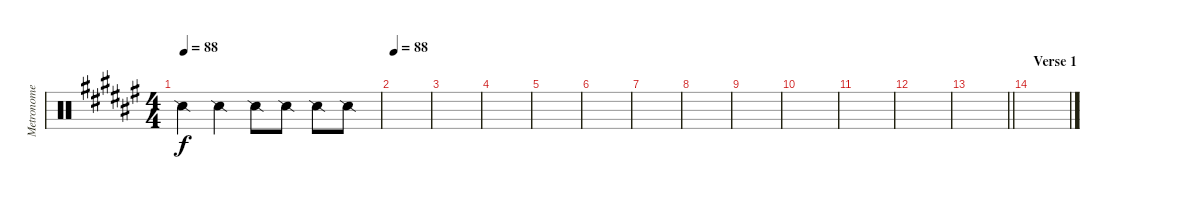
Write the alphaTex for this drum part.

\track ("Metronome" "Metronome") {instrument percussion}
\staff {score}
\articulation defaults
\ts (4 4)
\tempo 88
\clef neutral
\ks f# "Snare (side stick) 2".4{dy f} "Snare (side stick) 2".4 "Snare (side stick) 2".8 "Snare (side stick) 2".8 "Snare (side stick) 2".8 "Snare (side stick) 2".8
|
\tempo 88
|
|
|
|
|
|
|
|
|
|
|
\barLineRight lightlight
|
\section ("" "Verse 1")
